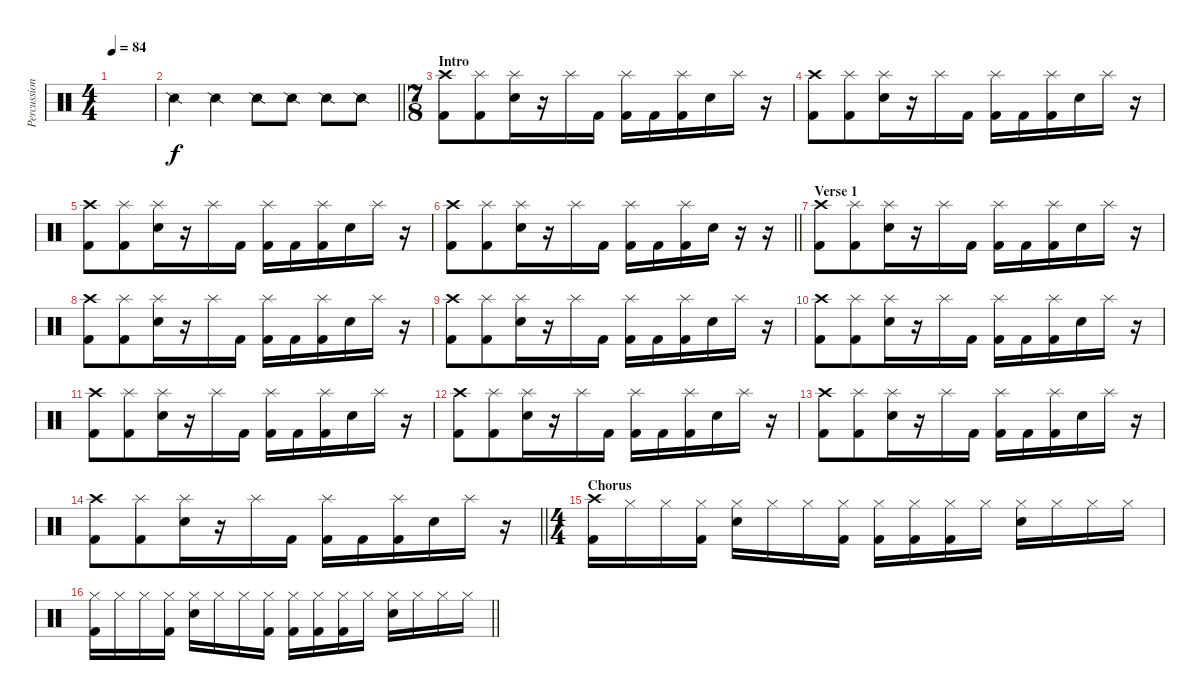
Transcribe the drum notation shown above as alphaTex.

\track ("Percussions" "Percussion") {instrument percussion}
\staff {score}
\articulation defaults
\ts (4 4)
\tempo 84
\clef neutral
\ks c
|
\barLineRight lightlight "Snare (side stick) 2".4 "Snare (side stick) 2".4 "Snare (side stick) 2".8 "Snare (side stick) 2".8 "Snare (side stick) 2".8 "Snare (side stick) 2".8
|
\ts (7 8)
\section ("" "Intro")
("Crash high (hit)" "Kick (hit) 2").8 ("Splash (hit)" "Kick (hit) 2").8 ("Splash (hit)" "Electric Snare (hit)").16 r.16 "Splash (hit)".16 "Kick (hit) 2".16 ("Splash (hit)" "Kick (hit) 2").16 "Kick (hit) 2".16 ("Splash (hit)" "Kick (hit) 2").16 "Electric Snare (hit)".16 "Splash (hit)".16 r.16 |
("Crash high (hit)" "Kick (hit) 2").8 ("Splash (hit)" "Kick (hit) 2").8 ("Splash (hit)" "Electric Snare (hit)").16 r.16 "Splash (hit)".16 "Kick (hit) 2".16 ("Splash (hit)" "Kick (hit) 2").16 "Kick (hit) 2".16 ("Splash (hit)" "Kick (hit) 2").16 "Electric Snare (hit)".16 "Splash (hit)".16 r.16 |
("Crash high (hit)" "Kick (hit) 2").8 ("Splash (hit)" "Kick (hit) 2").8 ("Splash (hit)" "Electric Snare (hit)").16 r.16 "Splash (hit)".16 "Kick (hit) 2".16 ("Splash (hit)" "Kick (hit) 2").16 "Kick (hit) 2".16 ("Splash (hit)" "Kick (hit) 2").16 "Electric Snare (hit)".16 "Splash (hit)".16 r.16 |
\barLineRight lightlight
("Crash high (hit)" "Kick (hit) 2").8 ("Splash (hit)" "Kick (hit) 2").8 ("Splash (hit)" "Electric Snare (hit)").16 r.16 "Splash (hit)".16 "Kick (hit) 2".16 ("Splash (hit)" "Kick (hit) 2").16 "Kick (hit) 2".16 ("Splash (hit)" "Kick (hit) 2").16 "Electric Snare (hit)".16 r.16 r.16 |
\section ("" "Verse 1")
("Crash high (hit)" "Kick (hit) 2").8 ("Splash (hit)" "Kick (hit) 2").8 ("Splash (hit)" "Electric Snare (hit)").16 r.16 "Splash (hit)".16 "Kick (hit) 2".16 ("Splash (hit)" "Kick (hit) 2").16 "Kick (hit) 2".16 ("Splash (hit)" "Kick (hit) 2").16 "Electric Snare (hit)".16 "Splash (hit)".16 r.16 |
("Crash high (hit)" "Kick (hit) 2").8 ("Splash (hit)" "Kick (hit) 2").8 ("Splash (hit)" "Electric Snare (hit)").16 r.16 "Splash (hit)".16 "Kick (hit) 2".16 ("Splash (hit)" "Kick (hit) 2").16 "Kick (hit) 2".16 ("Splash (hit)" "Kick (hit) 2").16 "Electric Snare (hit)".16 "Splash (hit)".16 r.16 |
("Crash high (hit)" "Kick (hit) 2").8 ("Splash (hit)" "Kick (hit) 2").8 ("Splash (hit)" "Electric Snare (hit)").16 r.16 "Splash (hit)".16 "Kick (hit) 2".16 ("Splash (hit)" "Kick (hit) 2").16 "Kick (hit) 2".16 ("Splash (hit)" "Kick (hit) 2").16 "Electric Snare (hit)".16 "Splash (hit)".16 r.16 |
("Crash high (hit)" "Kick (hit) 2").8 ("Splash (hit)" "Kick (hit) 2").8 ("Splash (hit)" "Electric Snare (hit)").16 r.16 "Splash (hit)".16 "Kick (hit) 2".16 ("Splash (hit)" "Kick (hit) 2").16 "Kick (hit) 2".16 ("Splash (hit)" "Kick (hit) 2").16 "Electric Snare (hit)".16 "Splash (hit)".16 r.16 |
("Crash high (hit)" "Kick (hit) 2").8 ("Splash (hit)" "Kick (hit) 2").8 ("Splash (hit)" "Electric Snare (hit)").16 r.16 "Splash (hit)".16 "Kick (hit) 2".16 ("Splash (hit)" "Kick (hit) 2").16 "Kick (hit) 2".16 ("Splash (hit)" "Kick (hit) 2").16 "Electric Snare (hit)".16 "Splash (hit)".16 r.16 |
("Crash high (hit)" "Kick (hit) 2").8 ("Splash (hit)" "Kick (hit) 2").8 ("Splash (hit)" "Electric Snare (hit)").16 r.16 "Splash (hit)".16 "Kick (hit) 2".16 ("Splash (hit)" "Kick (hit) 2").16 "Kick (hit) 2".16 ("Splash (hit)" "Kick (hit) 2").16 "Electric Snare (hit)".16 "Splash (hit)".16 r.16 |
("Crash high (hit)" "Kick (hit) 2").8 ("Splash (hit)" "Kick (hit) 2").8 ("Splash (hit)" "Electric Snare (hit)").16 r.16 "Splash (hit)".16 "Kick (hit) 2".16 ("Splash (hit)" "Kick (hit) 2").16 "Kick (hit) 2".16 ("Splash (hit)" "Kick (hit) 2").16 "Electric Snare (hit)".16 "Splash (hit)".16 r.16 |
\barLineRight lightlight
("Crash high (hit)" "Kick (hit) 2").8 ("Splash (hit)" "Kick (hit) 2").8 ("Splash (hit)" "Electric Snare (hit)").16 r.16 "Splash (hit)".16 "Kick (hit) 2".16 ("Splash (hit)" "Kick (hit) 2").16 "Kick (hit) 2".16 ("Splash (hit)" "Kick (hit) 2").16 "Electric Snare (hit)".16 "Splash (hit)".16 r.16 |
\ts (4 4)
\section ("" "Chorus")
("Crash high (hit)" "Kick (hit) 2").16 "Hi-Hat (closed)".16 "Hi-Hat (closed)".16 ("Hi-Hat (closed)" "Kick (hit) 2").16 ("Hi-Hat (closed)" "Electric Snare (hit)").16 "Hi-Hat (closed)".16 "Hi-Hat (closed)".16 ("Hi-Hat (closed)" "Kick (hit) 2").16 ("Hi-Hat (closed)" "Kick (hit) 2").16 ("Hi-Hat (closed)" "Kick (hit) 2").16 ("Hi-Hat (closed)" "Kick (hit) 2").16 "Hi-Hat (closed)".16 ("Hi-Hat (closed)" "Electric Snare (hit)").16 "Hi-Hat (closed)".16 "Hi-Hat (closed)".16 "Hi-Hat (closed)".16 |
\barLineRight lightlight
("Hi-Hat (closed)" "Kick (hit) 2").16 "Hi-Hat (closed)".16 "Hi-Hat (closed)".16 ("Hi-Hat (closed)" "Kick (hit) 2").16 ("Hi-Hat (closed)" "Electric Snare (hit)").16 "Hi-Hat (closed)".16 "Hi-Hat (closed)".16 ("Hi-Hat (closed)" "Kick (hit) 2").16 ("Hi-Hat (closed)" "Kick (hit) 2").16 ("Hi-Hat (closed)" "Kick (hit) 2").16 ("Hi-Hat (closed)" "Kick (hit) 2").16 "Hi-Hat (closed)".16 ("Hi-Hat (closed)" "Electric Snare (hit)").16 "Hi-Hat (closed)".16 "Hi-Hat (closed)".16 "Hi-Hat (closed)".16
